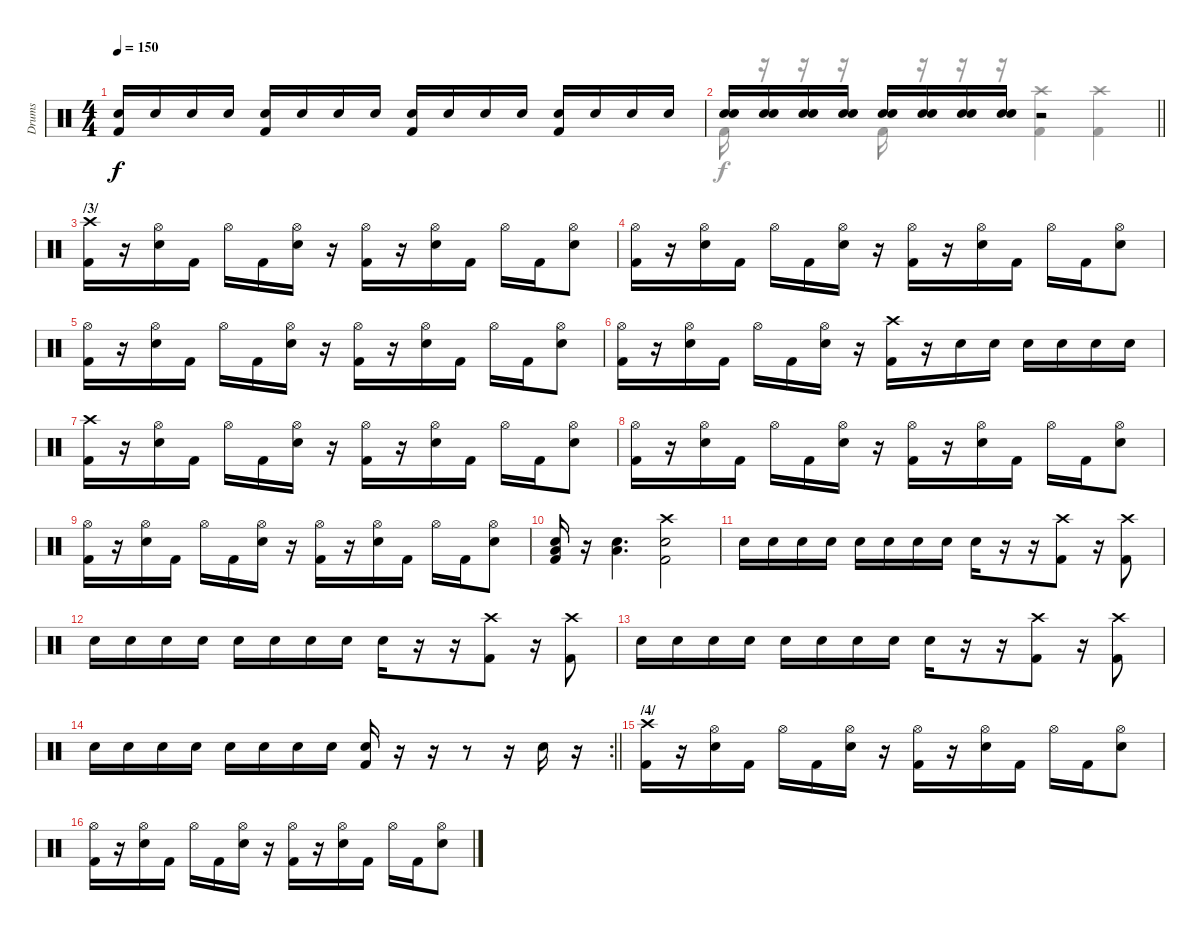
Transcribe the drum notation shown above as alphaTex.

\track ("Drums" "Drums") {instrument percussion}
\staff {score}
\articulation defaults
\voice
\ts (4 4)
\tempo 150
\clef neutral
\ks c
("Snare (hit) 2" "Kick (hit) 2").16{dy f} "Snare (hit) 2".16 "Snare (hit) 2".16 "Snare (hit) 2".16 ("Snare (hit) 2" "Kick (hit) 2").16 "Snare (hit) 2".16 "Snare (hit) 2".16 "Snare (hit) 2".16 ("Snare (hit) 2" "Kick (hit) 2").16 "Snare (hit) 2".16 "Snare (hit) 2".16 "Snare (hit) 2".16 ("Snare (hit) 2" "Kick (hit) 2").16 "Snare (hit) 2".16 "Snare (hit) 2".16 "Snare (hit) 2".16 |
\barLineRight lightlight
("Electric Snare (hit)" "Snare (hit) 2").16 ("Electric Snare (hit)" "Snare (hit) 2").16 ("Electric Snare (hit)" "Snare (hit) 2").16 ("Electric Snare (hit)" "Snare (hit) 2").16 ("Electric Snare (hit)" "Snare (hit) 2").16 ("Electric Snare (hit)" "Snare (hit) 2").16 ("Electric Snare (hit)" "Snare (hit) 2").16 ("Electric Snare (hit)" "Snare (hit) 2").16 r.2 |
\section ("" "/3/")
("Crash high (hit)" "Kick (hit) 2").16 r.16 ("Hi-Hat (open)" "Electric Snare (hit)").16 "Kick (hit) 2".16 "Hi-Hat (open)".16 "Kick (hit) 2".16 ("Hi-Hat (open)" "Electric Snare (hit)").16 r.16 ("Hi-Hat (open)" "Kick (hit) 2").16 r.16 ("Hi-Hat (open)" "Electric Snare (hit)").16 "Kick (hit) 2".16 "Hi-Hat (open)".16 "Kick (hit) 2".16 ("Hi-Hat (open)" "Electric Snare (hit)").8 |
("Hi-Hat (open)" "Kick (hit) 2").16 r.16 ("Hi-Hat (open)" "Electric Snare (hit)").16 "Kick (hit) 2".16 "Hi-Hat (open)".16 "Kick (hit) 2".16 ("Hi-Hat (open)" "Electric Snare (hit)").16 r.16 ("Hi-Hat (open)" "Kick (hit) 2").16 r.16 ("Hi-Hat (open)" "Electric Snare (hit)").16 "Kick (hit) 2".16 "Hi-Hat (open)".16 "Kick (hit) 2".16 ("Hi-Hat (open)" "Electric Snare (hit)").8 |
("Hi-Hat (open)" "Kick (hit) 2").16 r.16 ("Hi-Hat (open)" "Electric Snare (hit)").16 "Kick (hit) 2".16 "Hi-Hat (open)".16 "Kick (hit) 2".16 ("Hi-Hat (open)" "Electric Snare (hit)").16 r.16 ("Hi-Hat (open)" "Kick (hit) 2").16 r.16 ("Hi-Hat (open)" "Electric Snare (hit)").16 "Kick (hit) 2".16 "Hi-Hat (open)".16 "Kick (hit) 2".16 ("Hi-Hat (open)" "Electric Snare (hit)").8 |
("Hi-Hat (open)" "Kick (hit) 2").16 r.16 ("Hi-Hat (open)" "Electric Snare (hit)").16 "Kick (hit) 2".16 "Hi-Hat (open)".16 "Kick (hit) 2".16 ("Hi-Hat (open)" "Electric Snare (hit)").16 r.16 ("Crash high (hit)" "Kick (hit) 2").16 r.16 "Electric Snare (hit)".16 "Electric Snare (hit)".16 "Electric Snare (hit)".16 "Electric Snare (hit)".16 "Electric Snare (hit)".16 "Electric Snare (hit)".16 |
("Crash high (hit)" "Kick (hit) 2").16 r.16 ("Hi-Hat (open)" "Electric Snare (hit)").16 "Kick (hit) 2".16 "Hi-Hat (open)".16 "Kick (hit) 2".16 ("Hi-Hat (open)" "Electric Snare (hit)").16 r.16 ("Hi-Hat (open)" "Kick (hit) 2").16 r.16 ("Hi-Hat (open)" "Electric Snare (hit)").16 "Kick (hit) 2".16 "Hi-Hat (open)".16 "Kick (hit) 2".16 ("Hi-Hat (open)" "Electric Snare (hit)").8 |
("Hi-Hat (open)" "Kick (hit) 2").16 r.16 ("Hi-Hat (open)" "Electric Snare (hit)").16 "Kick (hit) 2".16 "Hi-Hat (open)".16 "Kick (hit) 2".16 ("Hi-Hat (open)" "Electric Snare (hit)").16 r.16 ("Hi-Hat (open)" "Kick (hit) 2").16 r.16 ("Hi-Hat (open)" "Electric Snare (hit)").16 "Kick (hit) 2".16 "Hi-Hat (open)".16 "Kick (hit) 2".16 ("Hi-Hat (open)" "Electric Snare (hit)").8 |
("Hi-Hat (open)" "Kick (hit) 2").16 r.16 ("Hi-Hat (open)" "Electric Snare (hit)").16 "Kick (hit) 2".16 "Hi-Hat (open)".16 "Kick (hit) 2".16 ("Hi-Hat (open)" "Electric Snare (hit)").16 r.16 ("Hi-Hat (open)" "Kick (hit) 2").16 r.16 ("Hi-Hat (open)" "Electric Snare (hit)").16 "Kick (hit) 2".16 "Hi-Hat (open)".16 "Kick (hit) 2".16 ("Hi-Hat (open)" "Electric Snare (hit)").8 |
("Electric Snare (hit)" "Low Floor Tom (hit)" "Kick (hit) 2").16 r.16 ("Electric Snare (hit)" "Low Floor Tom (hit)").4{d} ("Crash high (hit)" "Electric Snare (hit)" "Kick (hit) 2").2 |
"Electric Snare (hit)".16 "Electric Snare (hit)".16 "Electric Snare (hit)".16 "Electric Snare (hit)".16 "Electric Snare (hit)".16 "Electric Snare (hit)".16 "Electric Snare (hit)".16 "Electric Snare (hit)".16 "Electric Snare (hit)".16 r.16 r.16 ("Crash high (hit)" "Kick (hit) 2").8 r.16 ("Crash high (hit)" "Kick (hit) 2").8 |
"Electric Snare (hit)".16 "Electric Snare (hit)".16 "Electric Snare (hit)".16 "Electric Snare (hit)".16 "Electric Snare (hit)".16 "Electric Snare (hit)".16 "Electric Snare (hit)".16 "Electric Snare (hit)".16 "Electric Snare (hit)".16 r.16 r.16 ("Crash high (hit)" "Kick (hit) 2").8 r.16 ("Crash high (hit)" "Kick (hit) 2").8 |
"Electric Snare (hit)".16 "Electric Snare (hit)".16 "Electric Snare (hit)".16 "Electric Snare (hit)".16 "Electric Snare (hit)".16 "Electric Snare (hit)".16 "Electric Snare (hit)".16 "Electric Snare (hit)".16 "Electric Snare (hit)".16 r.16 r.16 ("Crash high (hit)" "Kick (hit) 2").8 r.16 ("Crash high (hit)" "Kick (hit) 2").8 |
\rc 2
\barLineRight lightlight "Electric Snare (hit)".16 "Electric Snare (hit)".16 "Electric Snare (hit)".16 "Electric Snare (hit)".16 "Electric Snare (hit)".16 "Electric Snare (hit)".16 "Electric Snare (hit)".16 "Electric Snare (hit)".16
("Electric Snare (hit)" "Kick (hit) 2").16 r.16 r.16 r.8 r.16 "Electric Snare (hit)".16 r.16 |
\section ("" "/4/")
("Crash high (hit)" "Kick (hit) 2").16 r.16 ("Hi-Hat (open)" "Electric Snare (hit)").16 "Kick (hit) 2".16 "Hi-Hat (open)".16 "Kick (hit) 2".16 ("Hi-Hat (open)" "Electric Snare (hit)").16 r.16 ("Hi-Hat (open)" "Kick (hit) 2").16 r.16 ("Hi-Hat (open)" "Electric Snare (hit)").16 "Kick (hit) 2".16 "Hi-Hat (open)".16 "Kick (hit) 2".16 ("Hi-Hat (open)" "Electric Snare (hit)").8 |
("Hi-Hat (open)" "Kick (hit) 2").16 r.16 ("Hi-Hat (open)" "Electric Snare (hit)").16 "Kick (hit) 2".16 "Hi-Hat (open)".16 "Kick (hit) 2".16 ("Hi-Hat (open)" "Electric Snare (hit)").16 r.16 ("Hi-Hat (open)" "Kick (hit) 2").16 r.16 ("Hi-Hat (open)" "Electric Snare (hit)").16 "Kick (hit) 2".16 "Hi-Hat (open)".16 "Kick (hit) 2".16 ("Hi-Hat (open)" "Electric Snare (hit)").8
\voice
\clef neutral
\ottava regular
\simile none
\ks c
|
\barLineRight lightlight "Kick (hit) 2".16
r.16 r.16 r.16 "Kick (hit) 2".16 r.16 r.16 r.16 ("Crash high (hit)" "Kick (hit) 2").4 ("Crash high (hit)" "Kick (hit) 2").4 |
|
|
|
|
|
|
|
|
|
|
|
\barLineRight lightlight
|
|
